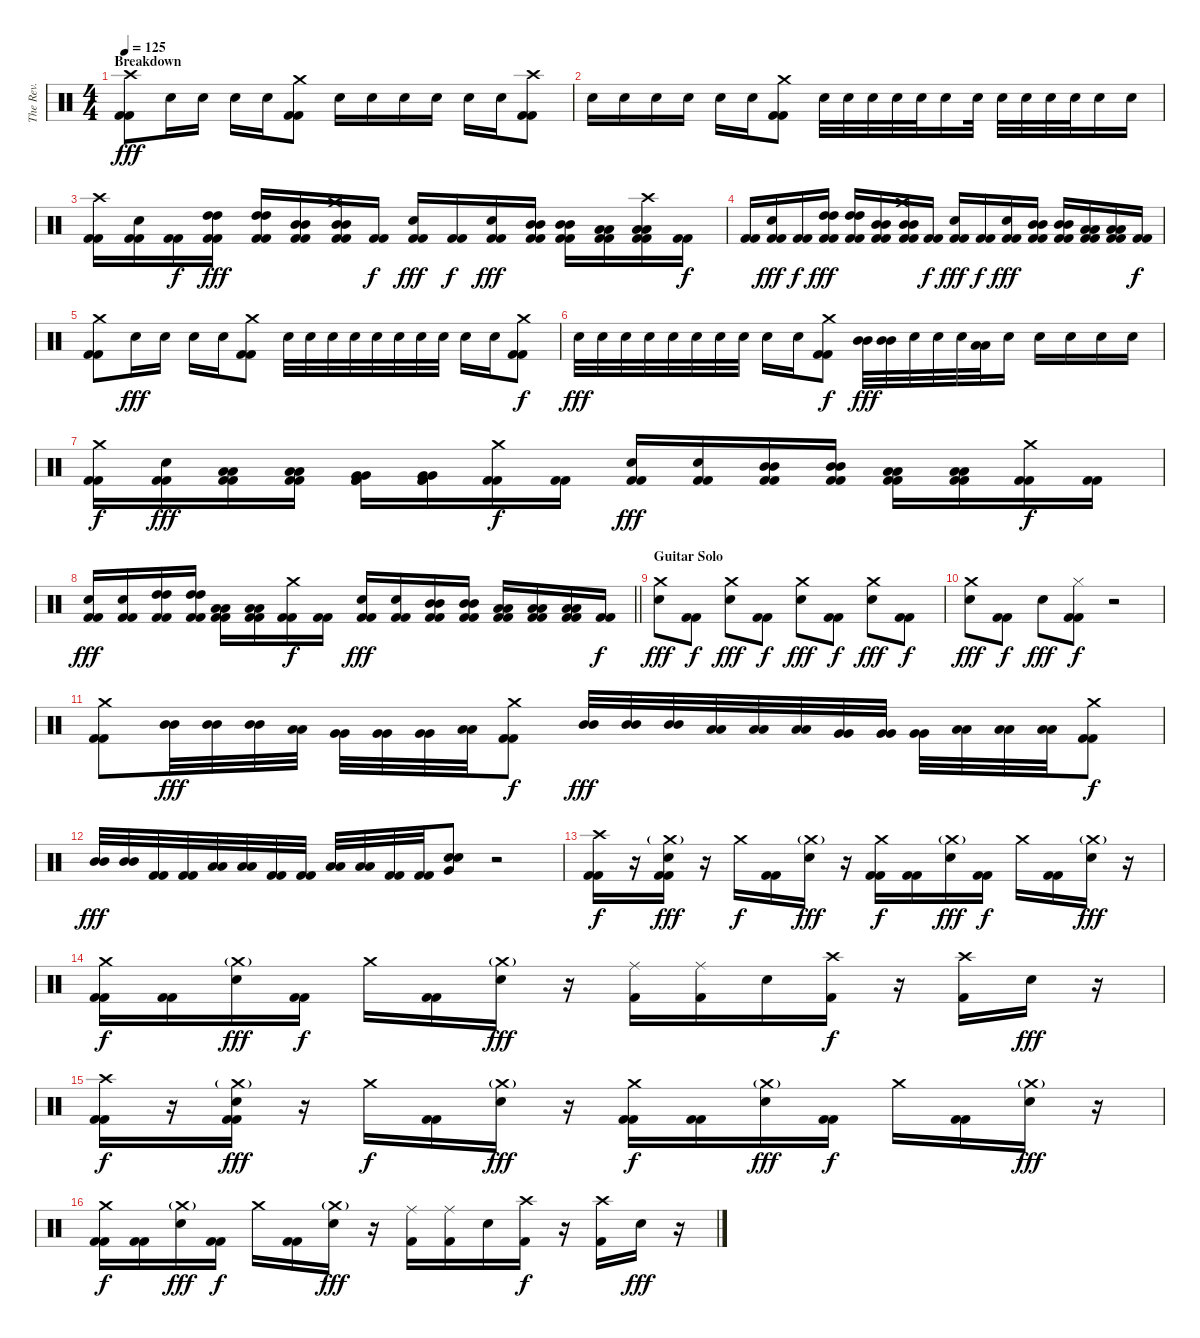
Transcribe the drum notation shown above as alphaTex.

\track ("The Rev." "The Rev.") {instrument percussion}
\staff {score}
\articulation defaults
\ts (4 4)
\section ("" "Breakdown")
\tempo 125
\clef neutral
\ks c
("Crash high (hit)" "Kick (hit) 2" "Kick (hit) 2").8{dy fff} "Electric Snare (hit)".16 "Electric Snare (hit)".16 "Electric Snare (hit)".16 "Electric Snare (hit)".16 ("Crash medium (hit)" "Kick (hit) 2" "Kick (hit) 2").8 "Electric Snare (hit)".16 "Electric Snare (hit)".16 "Electric Snare (hit)".16 "Electric Snare (hit)".16 "Electric Snare (hit)".16 "Electric Snare (hit)".16 ("Crash high (hit)" "Kick (hit) 2" "Kick (hit) 2").8 |
"Electric Snare (hit)".16 "Electric Snare (hit)".16 "Electric Snare (hit)".16 "Electric Snare (hit)".16 "Electric Snare (hit)".16 "Electric Snare (hit)".16 ("Crash medium (hit)" "Kick (hit) 2" "Kick (hit) 2").8 "Electric Snare (hit)".32 "Electric Snare (hit)".32 "Electric Snare (hit)".32 "Electric Snare (hit)".32 "Electric Snare (hit)".32 "Electric Snare (hit)".16 "Electric Snare (hit)".32 "Electric Snare (hit)".32 "Electric Snare (hit)".32 "Electric Snare (hit)".32 "Electric Snare (hit)".32 "Electric Snare (hit)".16 "Electric Snare (hit)".16 |
("Crash high (hit)" "Kick (hit) 2" "Kick (hit) 2").16 ("Electric Snare (hit)" "Kick (hit) 2" "Kick (hit) 2").16 ("Kick (hit) 2" "Kick (hit) 2").16{dy f} ("High Tom (hit)" "High Tom (hit)" "Kick (hit) 2" "Kick (hit) 2").16{dy fff} ("High Tom (hit)" "High Tom (hit)" "Kick (hit) 2" "Kick (hit) 2").16 ("Mid Tom (hit)" "Mid Tom (hit)" "Kick (hit) 2" "Kick (hit) 2").16 ("Crash medium (hit)" "Mid Tom (hit)" "Mid Tom (hit)" "Kick (hit) 2" "Kick (hit) 2").16 ("Kick (hit) 2" "Kick (hit) 2").16{dy f} ("Electric Snare (hit)" "Kick (hit) 2" "Kick (hit) 2").16{dy fff} ("Kick (hit) 2" "Kick (hit) 2").16{dy f} ("Electric Snare (hit)" "Kick (hit) 2" "Kick (hit) 2").16{dy fff} ("Mid Tom (hit)" "Mid Tom (hit)" "Kick (hit) 2" "Kick (hit) 2").16 ("Mid Tom (hit)" "Mid Tom (hit)" "Kick (hit) 2" "Kick (hit) 2").16 ("Low Tom (hit)" "Low Tom (hit)" "Kick (hit) 2" "Kick (hit) 2").16 ("Crash high (hit)" "Low Tom (hit)" "Low Tom (hit)" "Kick (hit) 2" "Kick (hit) 2").16 ("Kick (hit) 2" "Kick (hit) 2").16{dy f} |
("Kick (hit) 2" "Kick (hit) 2").16 ("Electric Snare (hit)" "Kick (hit) 2" "Kick (hit) 2").16{dy fff} ("Kick (hit) 2" "Kick (hit) 2").16{dy f} ("High Tom (hit)" "High Tom (hit)" "Kick (hit) 2" "Kick (hit) 2").16{dy fff} ("High Tom (hit)" "High Tom (hit)" "Kick (hit) 2" "Kick (hit) 2").16 ("Mid Tom (hit)" "Mid Tom (hit)" "Kick (hit) 2" "Kick (hit) 2").16 ("Crash medium (hit)" "Mid Tom (hit)" "Mid Tom (hit)" "Kick (hit) 2" "Kick (hit) 2").16 ("Kick (hit) 2" "Kick (hit) 2").16{dy f} ("Electric Snare (hit)" "Kick (hit) 2" "Kick (hit) 2").16{dy fff} ("Kick (hit) 2" "Kick (hit) 2").16{dy f} ("Electric Snare (hit)" "Kick (hit) 2" "Kick (hit) 2").16{dy fff} ("Mid Tom (hit)" "Mid Tom (hit)" "Kick (hit) 2" "Kick (hit) 2").16 ("Mid Tom (hit)" "Mid Tom (hit)" "Kick (hit) 2" "Kick (hit) 2").16 ("Low Tom (hit)" "Low Tom (hit)" "Kick (hit) 2" "Kick (hit) 2").16 ("Low Tom (hit)" "Low Tom (hit)" "Kick (hit) 2" "Kick (hit) 2").16 ("Kick (hit) 2" "Kick (hit) 2").16{dy f} |
("Crash medium (hit)" "Kick (hit) 2" "Kick (hit) 2").8 "Electric Snare (hit)".16{dy fff} "Electric Snare (hit)".16 "Electric Snare (hit)".16 "Electric Snare (hit)".16 ("Crash medium (hit)" "Kick (hit) 2" "Kick (hit) 2").8 "Electric Snare (hit)".32 "Electric Snare (hit)".32 "Electric Snare (hit)".32 "Electric Snare (hit)".32 "Electric Snare (hit)".32 "Electric Snare (hit)".32 "Electric Snare (hit)".32 "Electric Snare (hit)".32 "Electric Snare (hit)".16 "Electric Snare (hit)".16 ("Crash medium (hit)" "Kick (hit) 2" "Kick (hit) 2").8{dy f} |
"Electric Snare (hit)".32{dy fff} "Electric Snare (hit)".32 "Electric Snare (hit)".32 "Electric Snare (hit)".32 "Electric Snare (hit)".32 "Electric Snare (hit)".32 "Electric Snare (hit)".32 "Electric Snare (hit)".32 "Electric Snare (hit)".16 "Electric Snare (hit)".16 ("Crash medium (hit)" "Kick (hit) 2" "Kick (hit) 2").8{dy f} ("Mid Tom (hit)" "Mid Tom (hit)").32{dy fff} ("Mid Tom (hit)" "Mid Tom (hit)").32 "Electric Snare (hit)".32 "Electric Snare (hit)".32 "Electric Snare (hit)".32 ("Low Tom (hit)" "Low Tom (hit)").32 "Electric Snare (hit)".16 "Electric Snare (hit)".16 "Electric Snare (hit)".16 "Electric Snare (hit)".16 "Electric Snare (hit)".16 |
("Crash medium (hit)" "Kick (hit) 2" "Kick (hit) 2").16{dy f} ("Electric Snare (hit)" "Kick (hit) 2" "Kick (hit) 2").16{dy fff} ("Low Tom (hit)" "Low Tom (hit)" "Kick (hit) 2" "Kick (hit) 2").16 ("Low Tom (hit)" "Low Tom (hit)" "Kick (hit) 2" "Kick (hit) 2").16 ("Very Low Tom (hit)" "Very Low Tom (hit)" "Kick (hit) 2" "Kick (hit) 2").16 ("Very Low Tom (hit)" "Very Low Tom (hit)" "Kick (hit) 2" "Kick (hit) 2").16 ("Crash medium (hit)" "Kick (hit) 2" "Kick (hit) 2").16{dy f} ("Kick (hit) 2" "Kick (hit) 2").16 ("Electric Snare (hit)" "Kick (hit) 2" "Kick (hit) 2").16{dy fff} ("Electric Snare (hit)" "Kick (hit) 2" "Kick (hit) 2").16 ("Mid Tom (hit)" "Mid Tom (hit)" "Kick (hit) 2" "Kick (hit) 2").16 ("Mid Tom (hit)" "Mid Tom (hit)" "Kick (hit) 2" "Kick (hit) 2").16 ("Low Tom (hit)" "Low Tom (hit)" "Kick (hit) 2" "Kick (hit) 2").16 ("Low Tom (hit)" "Low Tom (hit)" "Kick (hit) 2" "Kick (hit) 2").16 ("Crash medium (hit)" "Kick (hit) 2" "Kick (hit) 2").16{dy f} ("Kick (hit) 2" "Kick (hit) 2").16 |
\barLineRight lightlight
("Electric Snare (hit)" "Kick (hit) 2" "Kick (hit) 2").16{dy fff} ("Electric Snare (hit)" "Kick (hit) 2" "Kick (hit) 2").16 ("High Tom (hit)" "High Tom (hit)" "Kick (hit) 2" "Kick (hit) 2").16 ("High Tom (hit)" "High Tom (hit)" "Kick (hit) 2" "Kick (hit) 2").16 ("Low Tom (hit)" "Low Tom (hit)" "Kick (hit) 2" "Kick (hit) 2").16 ("Low Tom (hit)" "Low Tom (hit)" "Kick (hit) 2" "Kick (hit) 2").16 ("Crash medium (hit)" "Kick (hit) 2" "Kick (hit) 2").16{dy f} ("Kick (hit) 2" "Kick (hit) 2").16 ("Electric Snare (hit)" "Kick (hit) 2" "Kick (hit) 2").16{dy fff} ("Electric Snare (hit)" "Kick (hit) 2" "Kick (hit) 2").16 ("Mid Tom (hit)" "Mid Tom (hit)" "Kick (hit) 2" "Kick (hit) 2").16 ("Mid Tom (hit)" "Mid Tom (hit)" "Kick (hit) 2" "Kick (hit) 2").16 ("Low Tom (hit)" "Low Tom (hit)" "Kick (hit) 2" "Kick (hit) 2").16 ("Low Tom (hit)" "Low Tom (hit)" "Kick (hit) 2" "Kick (hit) 2").16 ("Low Tom (hit)" "Low Tom (hit)" "Kick (hit) 2" "Kick (hit) 2").16 ("Kick (hit) 2" "Kick (hit) 2").16{dy f} |
\section ("" "Guitar Solo")
("Crash medium (hit)" "Electric Snare (hit)").8{dy fff} ("Kick (hit) 2" "Kick (hit) 2").8{dy f} ("Crash medium (hit)" "Electric Snare (hit)").8{dy fff} ("Kick (hit) 2" "Kick (hit) 2").8{dy f} ("Crash medium (hit)" "Electric Snare (hit)").8{dy fff} ("Kick (hit) 2" "Kick (hit) 2").8{dy f} ("Crash medium (hit)" "Electric Snare (hit)").8{dy fff} ("Kick (hit) 2" "Kick (hit) 2").8{dy f} |
("Crash medium (hit)" "Electric Snare (hit)").8{dy fff} ("Kick (hit) 2" "Kick (hit) 2").8{dy f} "Electric Snare (hit)".8{dy fff} ("Hi-Hat (closed)" "Kick (hit) 2" "Kick (hit) 2").8{dy f} r.2 |
("Crash medium (hit)" "Kick (hit) 2" "Kick (hit) 2").8 ("Mid Tom (hit)" "Mid Tom (hit)").32{dy fff} ("Mid Tom (hit)" "Mid Tom (hit)").32 ("Mid Tom (hit)" "Mid Tom (hit)").32 ("Low Tom (hit)" "Low Tom (hit)").32 ("Very Low Tom (hit)" "Very Low Tom (hit)").32 ("Very Low Tom (hit)" "Very Low Tom (hit)").32 ("Very Low Tom (hit)" "Very Low Tom (hit)").32 ("Low Floor Tom (hit)" "Low Floor Tom (hit)").32 ("Crash medium (hit)" "Kick (hit) 2" "Kick (hit) 2").8{dy f} ("Mid Tom (hit)" "Mid Tom (hit)").32{dy fff} ("Mid Tom (hit)" "Mid Tom (hit)").32 ("Mid Tom (hit)" "Mid Tom (hit)").32 ("Low Tom (hit)" "Low Tom (hit)").32 ("Low Tom (hit)" "Low Tom (hit)").32 ("Low Tom (hit)" "Low Tom (hit)").32 ("Very Low Tom (hit)" "Very Low Tom (hit)").32 ("Very Low Tom (hit)" "Very Low Tom (hit)").32 ("Very Low Tom (hit)" "Very Low Tom (hit)").32 ("Low Floor Tom (hit)" "Low Floor Tom (hit)").32 ("Low Floor Tom (hit)" "Low Floor Tom (hit)").32 ("Low Floor Tom (hit)" "Low Floor Tom (hit)").32 ("Crash medium (hit)" "Kick (hit) 2" "Kick (hit) 2").8{dy f} |
("Mid Tom (hit)" "Mid Tom (hit)").32{dy fff} ("Mid Tom (hit)" "Mid Tom (hit)").32 ("Kick (hit) 2" "Kick (hit) 2").32 ("Kick (hit) 2" "Kick (hit) 2").32 ("Low Tom (hit)" "Low Tom (hit)").32 ("Low Tom (hit)" "Low Tom (hit)").32 ("Kick (hit) 2" "Kick (hit) 2").32 ("Kick (hit) 2" "Kick (hit) 2").32 ("Low Tom (hit)" "Low Tom (hit)").32 ("Low Tom (hit)" "Low Tom (hit)").32 ("Kick (hit) 2" "Kick (hit) 2").32 ("Kick (hit) 2" "Kick (hit) 2").32 ("Electric Snare (hit)" "Electric Snare (hit)" "Very Low Tom (hit)").8 r.2 |
("Crash high (hit)" "Kick (hit) 2" "Kick (hit) 2").16{dy f} r.16 ("Crash medium (hit)"{g} "Electric Snare (hit)" "Kick (hit) 2" "Kick (hit) 2").16{dy fff} r.16 "Crash medium (hit)".16{dy f} ("Kick (hit) 2" "Kick (hit) 2").16 ("Crash medium (hit)"{g} "Electric Snare (hit)").16{dy fff} r.16 ("Crash medium (hit)" "Kick (hit) 2" "Kick (hit) 2").16{dy f} ("Kick (hit) 2" "Kick (hit) 2").16 ("Crash medium (hit)"{g} "Electric Snare (hit)").16{dy fff} ("Kick (hit) 2" "Kick (hit) 2").16{dy f} "Crash medium (hit)".16 ("Kick (hit) 2" "Kick (hit) 2").16 ("Crash medium (hit)"{g} "Electric Snare (hit)").16{dy fff} r.16 |
("Crash medium (hit)" "Kick (hit) 2" "Kick (hit) 2").16{dy f} ("Kick (hit) 2" "Kick (hit) 2").16 ("Crash medium (hit)"{g} "Electric Snare (hit)").16{dy fff} ("Kick (hit) 2" "Kick (hit) 2").16{dy f} "Crash medium (hit)".16 ("Kick (hit) 2" "Kick (hit) 2").16 ("Crash medium (hit)"{g} "Electric Snare (hit)").16{dy fff} r.16 ("Ride (middle)" "Kick (hit) 2").16 ("Ride (middle)" "Kick (hit) 2").16 "Electric Snare (hit)".16 ("Crash high (hit)" "Kick (hit) 2").16{dy f} r.16 ("Crash high (hit)" "Kick (hit) 2").16 "Electric Snare (hit)".16{dy fff} r.16 |
("Crash high (hit)" "Kick (hit) 2" "Kick (hit) 2").16{dy f} r.16 ("Crash medium (hit)"{g} "Electric Snare (hit)" "Kick (hit) 2" "Kick (hit) 2").16{dy fff} r.16 "Crash medium (hit)".16{dy f} ("Kick (hit) 2" "Kick (hit) 2").16 ("Crash medium (hit)"{g} "Electric Snare (hit)").16{dy fff} r.16 ("Crash medium (hit)" "Kick (hit) 2" "Kick (hit) 2").16{dy f} ("Kick (hit) 2" "Kick (hit) 2").16 ("Crash medium (hit)"{g} "Electric Snare (hit)").16{dy fff} ("Kick (hit) 2" "Kick (hit) 2").16{dy f} "Crash medium (hit)".16 ("Kick (hit) 2" "Kick (hit) 2").16 ("Crash medium (hit)"{g} "Electric Snare (hit)").16{dy fff} r.16 |
("Crash medium (hit)" "Kick (hit) 2" "Kick (hit) 2").16{dy f} ("Kick (hit) 2" "Kick (hit) 2").16 ("Crash medium (hit)"{g} "Electric Snare (hit)").16{dy fff} ("Kick (hit) 2" "Kick (hit) 2").16{dy f} "Crash medium (hit)".16 ("Kick (hit) 2" "Kick (hit) 2").16 ("Crash medium (hit)"{g} "Electric Snare (hit)").16{dy fff} r.16 ("Ride (middle)" "Kick (hit) 2").16 ("Ride (middle)" "Kick (hit) 2").16 "Electric Snare (hit)".16 ("Crash high (hit)" "Kick (hit) 2").16{dy f} r.16 ("Crash high (hit)" "Kick (hit) 2").16 "Electric Snare (hit)".16{dy fff} r.16
